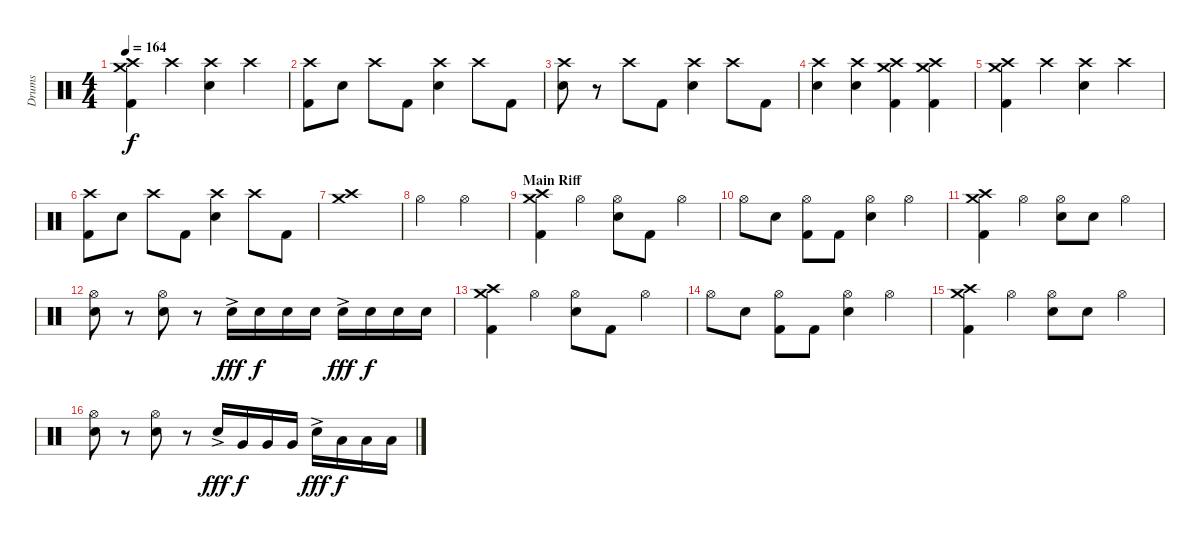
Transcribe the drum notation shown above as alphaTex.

\track ("Drums" "Drums") {instrument percussion}
\staff {score}
\articulation defaults
\ts (4 4)
\tempo 164
\clef neutral
\ks c
("Crash medium (hit)" "Crash high (hit)" "Kick (hit) 2").4{dy f} "Crash high (hit)".4 ("Crash high (hit)" "Electric Snare (hit)").4 "Crash high (hit)".4 |
("Crash high (hit)" "Kick (hit) 2").8 "Electric Snare (hit)".8 "Crash high (hit)".8 "Kick (hit) 2".8 ("Crash high (hit)" "Electric Snare (hit)").4 "Crash high (hit)".8 "Kick (hit) 2".8 |
("Crash high (hit)" "Electric Snare (hit)").8 r.8 "Crash high (hit)".8 "Kick (hit) 2".8 ("Crash high (hit)" "Electric Snare (hit)").4 "Crash high (hit)".8 "Kick (hit) 2".8 |
("Crash high (hit)" "Electric Snare (hit)").4 ("Crash high (hit)" "Electric Snare (hit)").4 ("Crash medium (hit)" "Crash high (hit)" "Kick (hit) 2").4 ("Crash medium (hit)" "Crash high (hit)" "Kick (hit) 2").4 |
("Crash medium (hit)" "Crash high (hit)" "Kick (hit) 2").4 "Crash high (hit)".4 ("Crash high (hit)" "Electric Snare (hit)").4 "Crash high (hit)".4 |
("Crash high (hit)" "Kick (hit) 2").8 "Electric Snare (hit)".8 "Crash high (hit)".8 "Kick (hit) 2".8 ("Crash high (hit)" "Electric Snare (hit)").4 "Crash high (hit)".8 "Kick (hit) 2".8 |
("Crash medium (hit)" "Crash high (hit)").1 |
"Hi-Hat (open)".2 "Hi-Hat (open)".2 |
\section ("" "Main Riff")
("Crash medium (hit)" "Crash high (hit)" "Kick (hit) 2").4 "Hi-Hat (open)".4 ("Hi-Hat (open)" "Electric Snare (hit)").8 "Kick (hit) 2".8 "Hi-Hat (open)".4 |
"Hi-Hat (open)".8 "Electric Snare (hit)".8 ("Hi-Hat (open)" "Kick (hit) 2").8 "Kick (hit) 2".8 ("Hi-Hat (open)" "Electric Snare (hit)").4 "Hi-Hat (open)".4 |
("Crash medium (hit)" "Crash high (hit)" "Kick (hit) 2").4 "Hi-Hat (open)".4 ("Hi-Hat (open)" "Electric Snare (hit)").8 "Electric Snare (hit)".8 "Hi-Hat (open)".4 |
("Hi-Hat (open)" "Electric Snare (hit)").8 r.8 ("Hi-Hat (open)" "Electric Snare (hit)").8 r.8 "Electric Snare (hit)"{ac}.16{dy fff} "Electric Snare (hit)".16{dy f} "Electric Snare (hit)".16 "Electric Snare (hit)".16 "Electric Snare (hit)"{ac}.16{dy fff} "Electric Snare (hit)".16{dy f} "Electric Snare (hit)".16 "Electric Snare (hit)".16 |
("Crash medium (hit)" "Crash high (hit)" "Kick (hit) 2").4 "Hi-Hat (open)".4 ("Hi-Hat (open)" "Electric Snare (hit)").8 "Kick (hit) 2".8 "Hi-Hat (open)".4 |
"Hi-Hat (open)".8 "Electric Snare (hit)".8 ("Hi-Hat (open)" "Kick (hit) 2").8 "Kick (hit) 2".8 ("Hi-Hat (open)" "Electric Snare (hit)").4 "Hi-Hat (open)".4 |
("Crash medium (hit)" "Crash high (hit)" "Kick (hit) 2").4 "Hi-Hat (open)".4 ("Hi-Hat (open)" "Electric Snare (hit)").8 "Electric Snare (hit)".8 "Hi-Hat (open)".4 |
("Hi-Hat (open)" "Electric Snare (hit)").8 r.8 ("Hi-Hat (open)" "Electric Snare (hit)").8 r.8 "Electric Snare (hit)"{ac}.16{dy fff} "Very Low Tom (hit)".16{dy f} "Very Low Tom (hit)".16 "Very Low Tom (hit)".16 "Electric Snare (hit)"{ac}.16{dy fff} "Low Floor Tom (hit)".16{dy f} "Low Floor Tom (hit)".16 "Low Floor Tom (hit)".16
